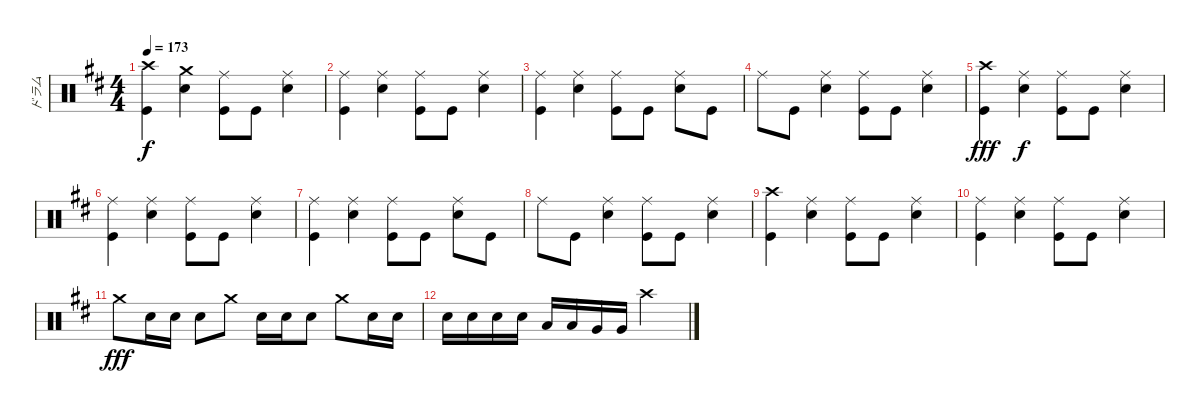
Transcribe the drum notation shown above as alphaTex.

\track ("ドラム" "ドラム") {mute instrument percussion}
\staff {score}
\articulation defaults
\ts (4 4)
\tempo 173
\clef neutral
\ks d
("Crash high (hit)" "Kick (hit)").4{dy f} ("Crash medium (hit)" "Snare (hit) 2").4 ("Ride (middle)" "Kick (hit)").8 "Kick (hit)".8 ("Ride (middle)" "Snare (hit) 2").4 |
("Ride (middle)" "Kick (hit)").4 ("Ride (middle)" "Snare (hit) 2").4 ("Ride (middle)" "Kick (hit)").8 "Kick (hit)".8 ("Ride (middle)" "Snare (hit) 2").4 |
("Ride (middle)" "Kick (hit)").4 ("Ride (middle)" "Snare (hit) 2").4 ("Ride (middle)" "Kick (hit)").8 "Kick (hit)".8 ("Ride (middle)" "Snare (hit) 2").8 "Kick (hit)".8 |
"Ride (middle)".8 "Kick (hit)".8 ("Snare (hit) 2" "Ride (middle)").4 ("Ride (middle)" "Kick (hit)").8 "Kick (hit)".8 ("Ride (middle)" "Snare (hit) 2").4 |
("Crash high (hit)" "Kick (hit)").4{dy fff} ("Ride (middle)" "Snare (hit) 2").4{dy f} ("Ride (middle)" "Kick (hit)").8 "Kick (hit)".8 ("Ride (middle)" "Snare (hit) 2").4 |
("Ride (middle)" "Kick (hit)").4 ("Ride (middle)" "Snare (hit) 2").4 ("Ride (middle)" "Kick (hit)").8 "Kick (hit)".8 ("Ride (middle)" "Snare (hit) 2").4 |
("Ride (middle)" "Kick (hit)").4 ("Ride (middle)" "Snare (hit) 2").4 ("Ride (middle)" "Kick (hit)").8 "Kick (hit)".8 ("Ride (middle)" "Snare (hit) 2").8 "Kick (hit)".8 |
"Ride (middle)".8 "Kick (hit)".8 ("Snare (hit) 2" "Ride (middle)").4 ("Ride (middle)" "Kick (hit)").8 "Kick (hit)".8 ("Ride (middle)" "Snare (hit) 2").4 |
("Crash high (hit)" "Kick (hit)").4 ("Ride (middle)" "Snare (hit) 2").4 ("Ride (middle)" "Kick (hit)").8 "Kick (hit)".8 ("Ride (middle)" "Snare (hit) 2").4 |
("Ride (middle)" "Kick (hit)").4 ("Ride (middle)" "Snare (hit) 2").4 ("Ride (middle)" "Kick (hit)").8 "Kick (hit)".8 ("Ride (middle)" "Snare (hit) 2").4 |
"Crash medium (hit)".8{dy fff} "Snare (hit) 2".16 "Snare (hit) 2".16 "Snare (hit) 2".8 "Crash medium (hit)".8 "Snare (hit) 2".16 "Snare (hit) 2".16 "Snare (hit) 2".8 "Crash medium (hit)".8 "Snare (hit) 2".16 "Snare (hit) 2".16 |
"Snare (hit) 2".16 "Snare (hit) 2".16 "Snare (hit) 2".16 "Snare (hit) 2".16 "Low Tom (hit)".16 "Low Tom (hit)".16 "Very Low Tom (hit)".16 "Very Low Tom (hit)".16 "Crash high (hit)".2
